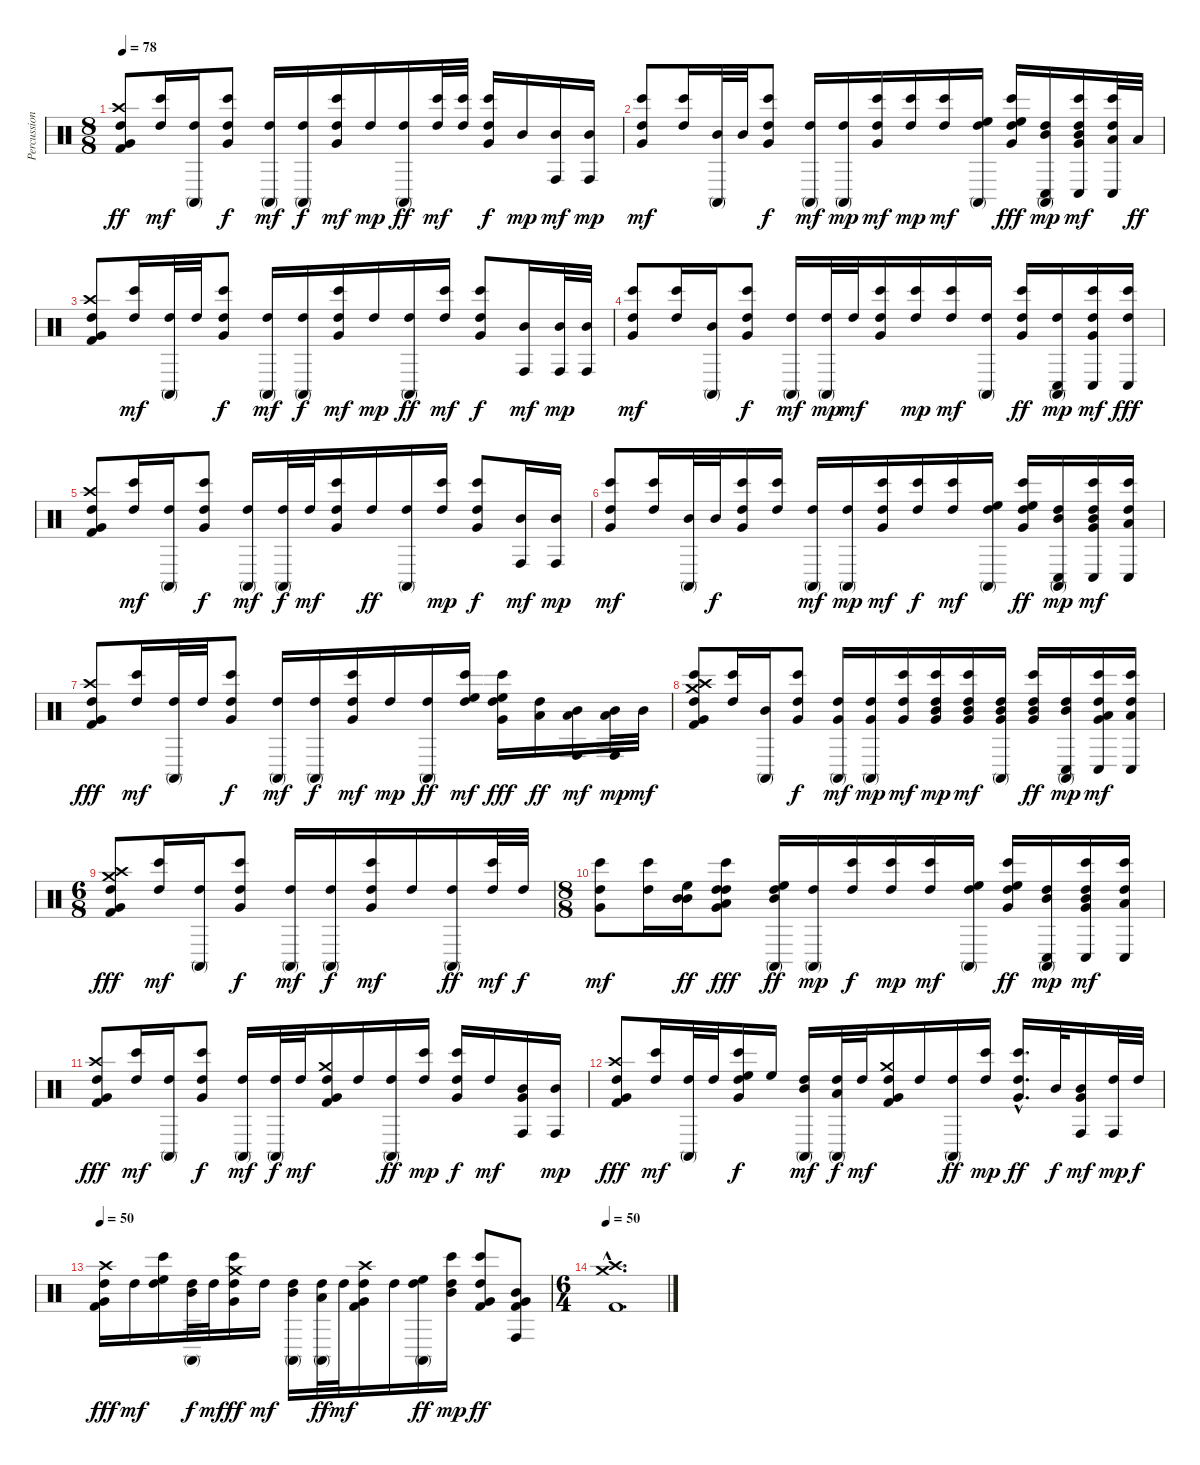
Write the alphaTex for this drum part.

\track ("Percussion" "Percussion") {instrument percussion}
\staff {score}
\articulation defaults
\ts (8 8)
\tempo 78
\clef neutral
\ks c
("Crash high (hit)" "Very Low Tom (hit)" "High Tom (hit)" "Kick (hit) 2").8{dy ff} ("Bongo High (hit)" "High Tom (hit)").16{dy mf} ("Conga high (mute)" "High Tom (hit)").16 ("Very Low Tom (hit)" "Bongo High (hit)" "High Tom (hit)").8{dy f} ("Conga high (mute)" "High Tom (hit)").16{dy mf} ("Conga high (mute)" "High Tom (hit)").16{dy f} ("Very Low Tom (hit)" "Bongo High (hit)" "High Tom (hit)").16{dy mf} "High Tom (hit)".16{dy mp} ("Conga high (mute)" "High Tom (hit)").16{dy ff} ("Bongo High (hit)" "High Tom (hit)").32{dy mf} ("Bongo High (hit)" "High Tom (hit)").32 ("Very Low Tom (hit)" "Bongo High (hit)" "High Tom (hit)").16{dy f} "Mid Tom (hit)".16{dy mp} ("Conga high (hit)" "Mid Tom (hit)").16{dy mf} ("Conga high (hit)" "Mid Tom (hit)").16{dy mp} |
("Very Low Tom (hit)" "Bongo High (hit)" "High Tom (hit)").8{dy mf} ("Bongo High (hit)" "High Tom (hit)").16 ("Conga high (mute)" "Mid Tom (hit)").32 "Mid Tom (hit)".32 ("Very Low Tom (hit)" "Bongo High (hit)" "High Tom (hit)").8{dy f} ("Conga high (mute)" "High Tom (hit)").16{dy mf} ("Conga high (mute)" "High Tom (hit)").16{dy mp} ("Very Low Tom (hit)" "Bongo High (hit)" "High Tom (hit)").16{dy mf} ("Bongo High (hit)" "High Tom (hit)").16{dy mp} ("Bongo High (hit)" "High Tom (hit)").16{dy mf} ("High Floor Tom (hit)" "Conga high (mute)" "High Tom (hit)").16 ("High Floor Tom (hit)" "Very Low Tom (hit)" "Bongo High (hit)" "High Tom (hit)").16{dy fff} ("Mid Tom (hit)" "Conga high (mute)" "High Tom (hit)" "Conga low (hit)").16{dy mp} ("Mid Tom (hit)" "Very Low Tom (hit)" "Bongo High (hit)" "High Tom (hit)" "Conga low (hit)").16{dy mf} ("Low Tom (hit)" "Bongo High (hit)" "High Tom (hit)" "Conga low (hit)").32 "Low Tom (hit)".32{dy ff} |
("Crash high (hit)" "Very Low Tom (hit)" "High Tom (hit)" "Kick (hit) 2").8 ("Bongo High (hit)" "High Tom (hit)").16{dy mf} ("Conga high (mute)" "High Tom (hit)").32 "High Tom (hit)".32 ("Very Low Tom (hit)" "Bongo High (hit)" "High Tom (hit)").8{dy f} ("Conga high (mute)" "High Tom (hit)").16{dy mf} ("Conga high (mute)" "High Tom (hit)").16{dy f} ("Very Low Tom (hit)" "Bongo High (hit)" "High Tom (hit)").16{dy mf} "High Tom (hit)".16{dy mp} ("Conga high (mute)" "High Tom (hit)").16{dy ff} ("Bongo High (hit)" "High Tom (hit)").16{dy mf} ("Very Low Tom (hit)" "Bongo High (hit)" "High Tom (hit)").8{dy f} ("Conga high (hit)" "Mid Tom (hit)").16{dy mf} ("Conga high (hit)" "Mid Tom (hit)").32{dy mp} ("Conga high (hit)" "Mid Tom (hit)").32 |
("Very Low Tom (hit)" "Bongo High (hit)" "High Tom (hit)").8{dy mf} ("Bongo High (hit)" "High Tom (hit)").16 ("Conga high (mute)" "Mid Tom (hit)").16 ("Very Low Tom (hit)" "Bongo High (hit)" "High Tom (hit)").8{dy f} ("Conga high (mute)" "High Tom (hit)").16{dy mf} ("Conga high (mute)" "High Tom (hit)").32{dy mp} "High Tom (hit)".32{dy mf} ("Very Low Tom (hit)" "Bongo High (hit)" "High Tom (hit)").16 ("Bongo High (hit)" "High Tom (hit)").16{dy mp} ("Bongo High (hit)" "High Tom (hit)").16{dy mf} ("Conga high (mute)" "High Tom (hit)").16 ("Very Low Tom (hit)" "Bongo High (hit)" "High Tom (hit)").16{dy ff} ("Conga high (mute)" "High Tom (hit)" "Conga low (hit)").16{dy mp} ("Very Low Tom (hit)" "Bongo High (hit)" "High Tom (hit)" "Conga low (hit)").16{dy mf} ("Bongo High (hit)" "High Tom (hit)" "Conga low (hit)").16{dy fff} |
("Crash high (hit)" "Very Low Tom (hit)" "High Tom (hit)" "Kick (hit) 2").8 ("Bongo High (hit)" "High Tom (hit)").16{dy mf} ("Conga high (mute)" "High Tom (hit)").16 ("Very Low Tom (hit)" "Bongo High (hit)" "High Tom (hit)").8{dy f} ("Conga high (mute)" "High Tom (hit)").16{dy mf} ("Conga high (mute)" "High Tom (hit)").32{dy f} "High Tom (hit)".32{dy mf} ("Very Low Tom (hit)" "Bongo High (hit)" "High Tom (hit)").16 "High Tom (hit)".16{dy ff} ("Conga high (mute)" "High Tom (hit)").16 ("Bongo High (hit)" "High Tom (hit)").16{dy mp} ("Very Low Tom (hit)" "Bongo High (hit)" "High Tom (hit)").8{dy f} ("Conga high (hit)" "Mid Tom (hit)").16{dy mf} ("Conga high (hit)" "Mid Tom (hit)").16{dy mp} |
("Very Low Tom (hit)" "Bongo High (hit)" "High Tom (hit)").8{dy mf} ("Bongo High (hit)" "High Tom (hit)").16 ("Conga high (mute)" "Mid Tom (hit)").32 "Mid Tom (hit)".32{dy f} ("Very Low Tom (hit)" "Bongo High (hit)" "High Tom (hit)").16 ("Bongo High (hit)" "High Tom (hit)").16 ("Conga high (mute)" "High Tom (hit)").16{dy mf} ("Conga high (mute)" "High Tom (hit)").16{dy mp} ("Very Low Tom (hit)" "Bongo High (hit)" "High Tom (hit)").16{dy mf} ("Bongo High (hit)" "High Tom (hit)").16{dy f} ("Bongo High (hit)" "High Tom (hit)").16{dy mf} ("High Floor Tom (hit)" "Conga high (mute)" "High Tom (hit)").16 ("High Floor Tom (hit)" "Very Low Tom (hit)" "Bongo High (hit)" "High Tom (hit)").16{dy ff} ("Mid Tom (hit)" "Conga high (mute)" "High Tom (hit)" "Conga low (hit)").16{dy mp} ("Mid Tom (hit)" "Very Low Tom (hit)" "Bongo High (hit)" "High Tom (hit)" "Conga low (hit)").16{dy mf} ("Low Tom (hit)" "Bongo High (hit)" "High Tom (hit)" "Conga low (hit)").16 |
("Crash high (hit)" "Very Low Tom (hit)" "High Tom (hit)" "Kick (hit) 2").8{dy fff} ("Bongo High (hit)" "High Tom (hit)").16{dy mf} ("Conga high (mute)" "High Tom (hit)").32 "High Tom (hit)".32 ("Very Low Tom (hit)" "Bongo High (hit)" "High Tom (hit)").8{dy f} ("Conga high (mute)" "High Tom (hit)").16{dy mf} ("Conga high (mute)" "High Tom (hit)").16{dy f} ("Very Low Tom (hit)" "Bongo High (hit)" "High Tom (hit)").16{dy mf} "High Tom (hit)".16{dy mp} ("Conga high (mute)" "High Tom (hit)").16{dy ff} ("High Floor Tom (hit)" "Bongo High (hit)" "High Tom (hit)").16{dy mf} ("High Floor Tom (hit)" "Very Low Tom (hit)" "Bongo High (hit)" "High Tom (hit)").16{dy fff} ("Low Tom (hit)" "High Tom (hit)").16{dy ff} ("Low Tom (hit)" "Conga high (hit)" "Mid Tom (hit)").16{dy mf} ("Low Tom (hit)" "Conga high (hit)" "Mid Tom (hit)").32{dy mp} "Mid Tom (hit)".32{dy mf} |
("Crash high (hit)" "Very Low Tom (hit)" "Bongo High (hit)" "High Tom (hit)" "Crash medium (hit)" "Kick (hit) 2").8 ("Bongo High (hit)" "High Tom (hit)").16 ("Conga high (mute)" "Mid Tom (hit)").16 ("Very Low Tom (hit)" "Bongo High (hit)" "High Tom (hit)").8{dy f} ("Very Low Tom (hit)" "Conga high (mute)" "High Tom (hit)").16{dy mf} ("Very Low Tom (hit)" "Conga high (mute)" "High Tom (hit)").16{dy mp} ("Very Low Tom (hit)" "Bongo High (hit)" "High Tom (hit)").16{dy mf} ("Mid Tom (hit)" "Very Low Tom (hit)" "Bongo High (hit)" "High Tom (hit)").16{dy mp} ("Mid Tom (hit)" "Very Low Tom (hit)" "Bongo High (hit)" "High Tom (hit)").16{dy mf} ("Mid Tom (hit)" "Very Low Tom (hit)" "Conga high (mute)" "High Tom (hit)").16 ("Mid Tom (hit)" "Very Low Tom (hit)" "Bongo High (hit)" "High Tom (hit)").16{dy ff} ("Mid Tom (hit)" "Conga high (mute)" "High Tom (hit)" "Conga low (hit)").16{dy mp} ("Low Tom (hit)" "Very Low Tom (hit)" "Bongo High (hit)" "High Tom (hit)" "Conga low (hit)").16{dy mf} ("Low Tom (hit)" "Bongo High (hit)" "High Tom (hit)" "Conga low (hit)").16 |
\ts (6 8)
("Crash high (hit)" "Very Low Tom (hit)" "Crash medium (hit)" "High Tom (hit)" "Kick (hit) 2").8{dy fff} ("Bongo High (hit)" "High Tom (hit)").16{dy mf} ("Conga high (mute)" "High Tom (hit)").16 ("Very Low Tom (hit)" "Bongo High (hit)" "High Tom (hit)").8{dy f} ("Conga high (mute)" "High Tom (hit)").16{dy mf} ("Conga high (mute)" "High Tom (hit)").16{dy f} ("Very Low Tom (hit)" "Bongo High (hit)" "High Tom (hit)").16{dy mf} "High Tom (hit)".16 ("Conga high (mute)" "High Tom (hit)").16{dy ff} ("Bongo High (hit)" "High Tom (hit)").32{dy mf} "High Tom (hit)".32{dy f} |
\ts (8 8)
("Very Low Tom (hit)" "Bongo High (hit)" "High Tom (hit)").8{dy mf} ("Bongo High (hit)" "High Tom (hit)").16 ("Mid Tom (hit)" "Mid Tom (hit)" "High Floor Tom (hit)").16{dy ff} ("Very Low Tom (hit)" "Low Tom (hit)" "Bongo High (hit)" "High Tom (hit)" "High Tom (hit)").8{dy fff} ("Mid Tom (hit)" "Conga high (mute)" "High Tom (hit)" "High Floor Tom (hit)").16{dy ff} ("Conga high (mute)" "High Tom (hit)").16{dy mp} ("Bongo High (hit)" "High Tom (hit)").16{dy f} ("Bongo High (hit)" "High Tom (hit)").16{dy mp} ("Bongo High (hit)" "High Tom (hit)").16{dy mf} ("High Floor Tom (hit)" "Conga high (mute)" "High Tom (hit)").16 ("High Floor Tom (hit)" "Very Low Tom (hit)" "Bongo High (hit)" "High Tom (hit)").16{dy ff} ("Mid Tom (hit)" "Conga high (mute)" "High Tom (hit)" "Conga low (hit)").16{dy mp} ("Mid Tom (hit)" "Very Low Tom (hit)" "Bongo High (hit)" "High Tom (hit)" "Conga low (hit)").16{dy mf} ("Low Tom (hit)" "Bongo High (hit)" "High Tom (hit)" "Conga low (hit)").16 |
("Crash high (hit)" "Very Low Tom (hit)" "High Tom (hit)" "Kick (hit) 2").8{dy fff} ("Bongo High (hit)" "High Tom (hit)").16{dy mf} ("Conga high (mute)" "High Tom (hit)").16 ("Very Low Tom (hit)" "Bongo High (hit)" "High Tom (hit)").8{dy f} ("Conga high (mute)" "High Tom (hit)").16{dy mf} ("Conga high (mute)" "High Tom (hit)").32{dy f} "High Tom (hit)".32{dy mf} ("Crash medium (hit)" "Very Low Tom (hit)" "High Tom (hit)" "Kick (hit) 2").16 "High Tom (hit)".16 ("Conga high (mute)" "High Tom (hit)").16{dy ff} ("Bongo High (hit)" "High Tom (hit)").16{dy mp} ("Very Low Tom (hit)" "Bongo High (hit)" "High Tom (hit)").16{dy f} "High Tom (hit)".16{dy mf} ("Very Low Tom (hit)" "Conga high (hit)" "Mid Tom (hit)").16 ("Conga high (hit)" "Mid Tom (hit)").16{dy mp} |
("Crash high (hit)" "Very Low Tom (hit)" "High Tom (hit)" "Kick (hit) 2").8{dy fff} ("Bongo High (hit)" "High Tom (hit)").16{dy mf} ("Conga high (mute)" "High Tom (hit)").32 "High Tom (hit)".32 ("High Floor Tom (hit)" "Very Low Tom (hit)" "Bongo High (hit)" "High Tom (hit)").16{dy f} "High Floor Tom (hit)".16 ("Mid Tom (hit)" "Conga high (mute)" "High Tom (hit)").16{dy mf} ("Low Tom (hit)" "Conga high (mute)" "High Tom (hit)").32{dy f} "High Tom (hit)".32{dy mf} ("Crash medium (hit)" "Very Low Tom (hit)" "High Tom (hit)" "Kick (hit) 2").16 "High Tom (hit)".16 ("Conga high (mute)" "High Tom (hit)").16{dy ff} ("Bongo High (hit)" "High Tom (hit)").16{dy mp} ("Very Low Tom (hit)"{hac} "Bongo High (hit)"{hac} "High Tom (hit)"{hac}).16{d dy ff} "Mid Tom (hit)".32{dy f} ("Very Low Tom (hit)" "Conga high (hit)" "Mid Tom (hit)").16{dy mf} ("Conga high (hit)" "High Tom (hit)").32{dy mp} "High Tom (hit)".32{dy f} |
\tempo 50
("Crash high (hit)" "Very Low Tom (hit)" "High Tom (hit)" "Kick (hit) 2").16{dy fff} "High Tom (hit)".16{dy mf} ("High Floor Tom (hit)" "Bongo High (hit)" "High Tom (hit)").16 ("Mid Tom (hit)" "Conga high (mute)" "High Tom (hit)").32{dy f} "High Tom (hit)".32{dy mf} ("Crash medium (hit)" "Very Low Tom (hit)" "Bongo High (hit)" "High Tom (hit)").16{dy ff} "High Tom (hit)".16{dy mf} ("Mid Tom (hit)" "Conga high (mute)" "High Tom (hit)").16 ("Low Tom (hit)" "Conga high (mute)" "High Tom (hit)").32{dy ff} "High Tom (hit)".32{dy mf} ("Crash high (hit)" "Very Low Tom (hit)" "High Tom (hit)" "Kick (hit) 2").16 "High Tom (hit)".16 ("High Floor Tom (hit)" "Conga high (mute)" "High Tom (hit)").16{dy ff} ("Mid Tom (hit)" "Bongo High (hit)" "High Tom (hit)").16{dy mp} ("Very Low Tom (hit)" "Bongo High (hit)" "High Tom (hit)" "Kick (hit) 2").8{dy ff} ("Very Low Tom (hit)" "Conga high (hit)" "Mid Tom (hit)" "Kick (hit) 2").8 |
\ts (6 4)
\tempo 50
("Crash high (hit)"{hac} "Crash medium (hit)"{hac} "Kick (hit) 2"{hac}).1{d}
